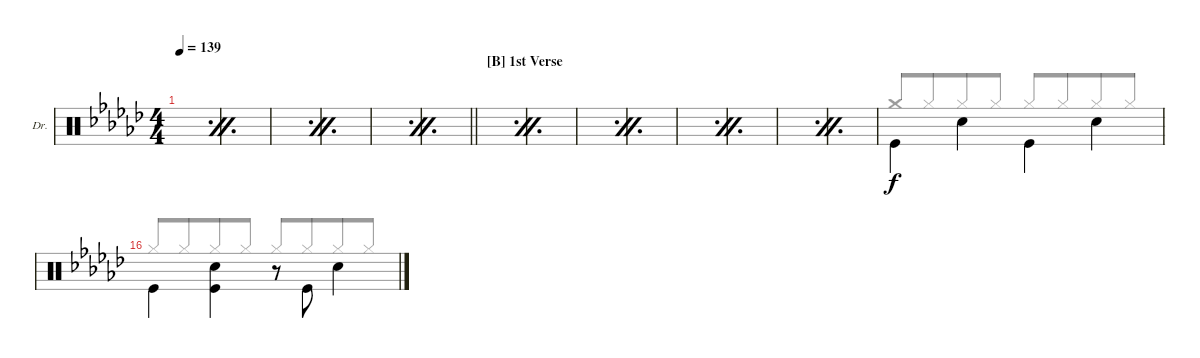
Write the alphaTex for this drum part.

\bracketExtendMode groupsimilarinstruments
\firstSystemTrackNameOrientation horizontal
\otherSystemsTrackNameOrientation horizontal
\defaultBarNumberDisplay FirstOfSystem
\track ("Drums" "Dr.") {instrument percussion}
\staff {score}
\articulation defaults
\voice
\ts (4 4)
\tempo 139
\clef neutral
\simile firstofdouble
\ks gb
|
\simile secondofdouble
|
\simile firstofdouble
|
\simile secondofdouble
|
\simile firstofdouble
|
\simile secondofdouble
\barLineRight lightlight
|
\section ("B" "1st Verse")
\simile firstofdouble
|
\simile secondofdouble
|
\simile firstofdouble
|
\simile secondofdouble
|
\simile firstofdouble
|
\simile secondofdouble
|
\simile firstofdouble
|
\simile secondofdouble
|
\simile none "Kick (hit)".4{beam invert} "Snare (hit) 2".4{beam invert} "Kick (hit)".4{beam invert} "Snare (hit) 2".4{beam invert}
|
"Kick (hit)".4{beam invert} ("Snare (hit) 2" "Kick (hit)").4{beam invert} r.8 "Kick (hit)".8{beam invert} "Snare (hit) 2".4{beam invert}
\voice
\clef neutral
\ottava regular
\simile firstofdouble
\ks gb
|
\simile secondofdouble
|
\simile firstofdouble
|
\simile secondofdouble
|
\simile firstofdouble
|
\simile secondofdouble
\barLineRight lightlight
|
\simile firstofdouble
|
\simile secondofdouble
|
\simile firstofdouble
|
\simile secondofdouble
|
\simile firstofdouble
|
\simile secondofdouble
|
\simile firstofdouble
|
\simile secondofdouble
|
\simile none "Crash medium (hit)".8{beam invert} "Hi-Hat (closed)".8{beam merge} "Hi-Hat (closed)".8 "Hi-Hat (closed)".8 "Hi-Hat (closed)".8{beam invert} "Hi-Hat (closed)".8{beam merge} "Hi-Hat (closed)".8 "Hi-Hat (closed)".8
|
"Hi-Hat (closed)".8{beam invert} "Hi-Hat (closed)".8{beam merge} "Hi-Hat (closed)".8 "Hi-Hat (closed)".8 "Hi-Hat (closed)".8{beam invert beam merge} "Hi-Hat (closed)".8{beam merge} "Hi-Hat (closed)".8{beam merge} "Hi-Hat (closed)".8
